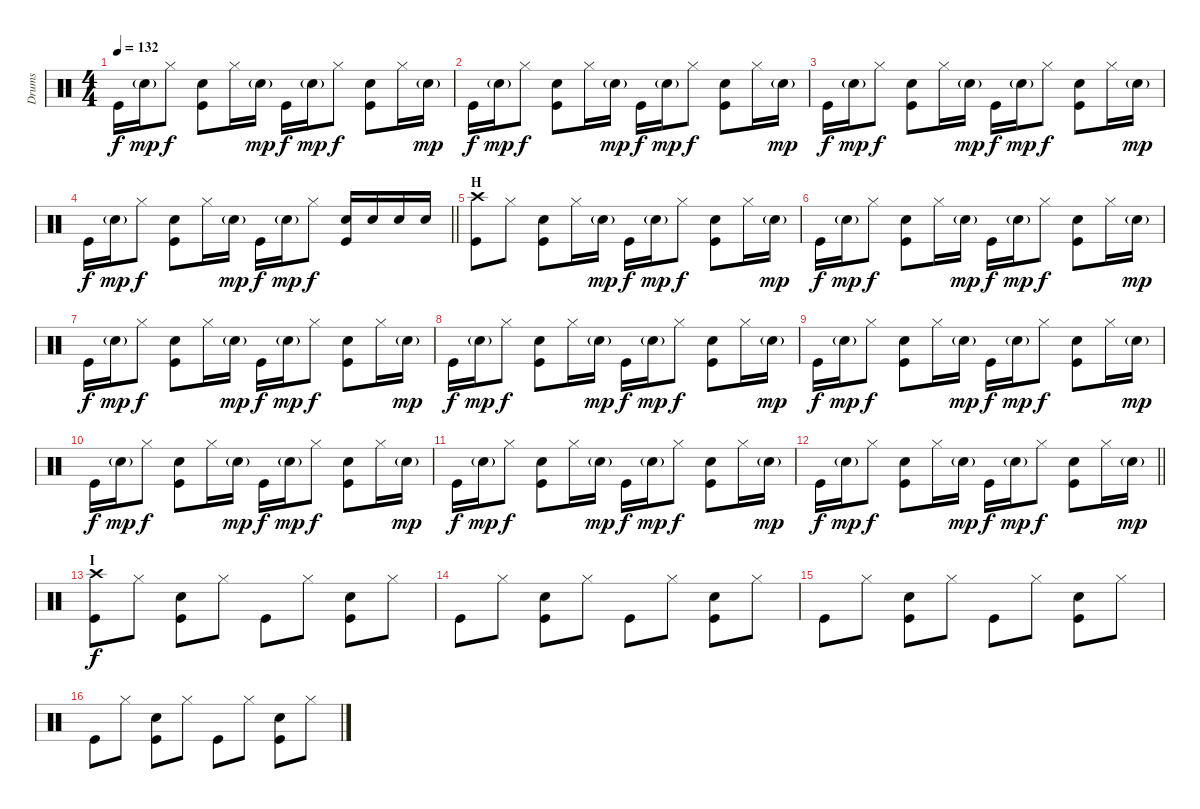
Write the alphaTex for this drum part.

\track ("Drums" "Drums") {instrument percussion}
\staff {score}
\articulation defaults
\ts (4 4)
\tempo 132
\clef neutral
\ks c "Kick (hit)".16{dy f} "Electric Snare (hit)"{g}.16{dy mp} "Hi-Hat (closed)".8{dy f}
("Electric Snare (hit)" "Kick (hit)").8 "Hi-Hat (closed)".16 "Electric Snare (hit)"{g}.16{dy mp} "Kick (hit)".16{dy f} "Electric Snare (hit)"{g}.16{dy mp} "Hi-Hat (closed)".8{dy f} ("Electric Snare (hit)" "Kick (hit)").8 "Hi-Hat (closed)".16 "Electric Snare (hit)"{g}.16{dy mp} |
"Kick (hit)".16{dy f} "Electric Snare (hit)"{g}.16{dy mp} "Hi-Hat (closed)".8{dy f} ("Electric Snare (hit)" "Kick (hit)").8 "Hi-Hat (closed)".16 "Electric Snare (hit)"{g}.16{dy mp} "Kick (hit)".16{dy f} "Electric Snare (hit)"{g}.16{dy mp} "Hi-Hat (closed)".8{dy f} ("Electric Snare (hit)" "Kick (hit)").8 "Hi-Hat (closed)".16 "Electric Snare (hit)"{g}.16{dy mp} |
"Kick (hit)".16{dy f} "Electric Snare (hit)"{g}.16{dy mp} "Hi-Hat (closed)".8{dy f} ("Electric Snare (hit)" "Kick (hit)").8 "Hi-Hat (closed)".16 "Electric Snare (hit)"{g}.16{dy mp} "Kick (hit)".16{dy f} "Electric Snare (hit)"{g}.16{dy mp} "Hi-Hat (closed)".8{dy f} ("Electric Snare (hit)" "Kick (hit)").8 "Hi-Hat (closed)".16 "Electric Snare (hit)"{g}.16{dy mp} |
\barLineRight lightlight "Kick (hit)".16{dy f} "Electric Snare (hit)"{g}.16{dy mp} "Hi-Hat (closed)".8{dy f}
("Electric Snare (hit)" "Kick (hit)").8 "Hi-Hat (closed)".16 "Electric Snare (hit)"{g}.16{dy mp} "Kick (hit)".16{dy f} "Electric Snare (hit)"{g}.16{dy mp} "Hi-Hat (closed)".8{dy f} ("Electric Snare (hit)" "Kick (hit)").16 "Electric Snare (hit)".16 "Electric Snare (hit)".16 "Electric Snare (hit)".16 |
\section ("" "H")
("Crash high (hit)" "Kick (hit)").8 "Hi-Hat (closed)".8 ("Electric Snare (hit)" "Kick (hit)").8 "Hi-Hat (closed)".16 "Electric Snare (hit)"{g}.16{dy mp} "Kick (hit)".16{dy f} "Electric Snare (hit)"{g}.16{dy mp} "Hi-Hat (closed)".8{dy f} ("Electric Snare (hit)" "Kick (hit)").8 "Hi-Hat (closed)".16 "Electric Snare (hit)"{g}.16{dy mp} |
"Kick (hit)".16{dy f} "Electric Snare (hit)"{g}.16{dy mp} "Hi-Hat (closed)".8{dy f} ("Electric Snare (hit)" "Kick (hit)").8 "Hi-Hat (closed)".16 "Electric Snare (hit)"{g}.16{dy mp} "Kick (hit)".16{dy f} "Electric Snare (hit)"{g}.16{dy mp} "Hi-Hat (closed)".8{dy f} ("Electric Snare (hit)" "Kick (hit)").8 "Hi-Hat (closed)".16 "Electric Snare (hit)"{g}.16{dy mp} |
"Kick (hit)".16{dy f} "Electric Snare (hit)"{g}.16{dy mp} "Hi-Hat (closed)".8{dy f} ("Electric Snare (hit)" "Kick (hit)").8 "Hi-Hat (closed)".16 "Electric Snare (hit)"{g}.16{dy mp} "Kick (hit)".16{dy f} "Electric Snare (hit)"{g}.16{dy mp} "Hi-Hat (closed)".8{dy f} ("Electric Snare (hit)" "Kick (hit)").8 "Hi-Hat (closed)".16 "Electric Snare (hit)"{g}.16{dy mp} |
"Kick (hit)".16{dy f} "Electric Snare (hit)"{g}.16{dy mp} "Hi-Hat (closed)".8{dy f} ("Electric Snare (hit)" "Kick (hit)").8 "Hi-Hat (closed)".16 "Electric Snare (hit)"{g}.16{dy mp} "Kick (hit)".16{dy f} "Electric Snare (hit)"{g}.16{dy mp} "Hi-Hat (closed)".8{dy f} ("Electric Snare (hit)" "Kick (hit)").8 "Hi-Hat (closed)".16 "Electric Snare (hit)"{g}.16{dy mp} |
"Kick (hit)".16{dy f} "Electric Snare (hit)"{g}.16{dy mp} "Hi-Hat (closed)".8{dy f} ("Electric Snare (hit)" "Kick (hit)").8 "Hi-Hat (closed)".16 "Electric Snare (hit)"{g}.16{dy mp} "Kick (hit)".16{dy f} "Electric Snare (hit)"{g}.16{dy mp} "Hi-Hat (closed)".8{dy f} ("Electric Snare (hit)" "Kick (hit)").8 "Hi-Hat (closed)".16 "Electric Snare (hit)"{g}.16{dy mp} |
"Kick (hit)".16{dy f} "Electric Snare (hit)"{g}.16{dy mp} "Hi-Hat (closed)".8{dy f} ("Electric Snare (hit)" "Kick (hit)").8 "Hi-Hat (closed)".16 "Electric Snare (hit)"{g}.16{dy mp} "Kick (hit)".16{dy f} "Electric Snare (hit)"{g}.16{dy mp} "Hi-Hat (closed)".8{dy f} ("Electric Snare (hit)" "Kick (hit)").8 "Hi-Hat (closed)".16 "Electric Snare (hit)"{g}.16{dy mp} |
"Kick (hit)".16{dy f} "Electric Snare (hit)"{g}.16{dy mp} "Hi-Hat (closed)".8{dy f} ("Electric Snare (hit)" "Kick (hit)").8 "Hi-Hat (closed)".16 "Electric Snare (hit)"{g}.16{dy mp} "Kick (hit)".16{dy f} "Electric Snare (hit)"{g}.16{dy mp} "Hi-Hat (closed)".8{dy f} ("Electric Snare (hit)" "Kick (hit)").8 "Hi-Hat (closed)".16 "Electric Snare (hit)"{g}.16{dy mp} |
\barLineRight lightlight "Kick (hit)".16{dy f} "Electric Snare (hit)"{g}.16{dy mp} "Hi-Hat (closed)".8{dy f}
("Electric Snare (hit)" "Kick (hit)").8 "Hi-Hat (closed)".16 "Electric Snare (hit)"{g}.16{dy mp} "Kick (hit)".16{dy f} "Electric Snare (hit)"{g}.16{dy mp} "Hi-Hat (closed)".8{dy f} ("Electric Snare (hit)" "Kick (hit)").8 "Hi-Hat (closed)".16 "Electric Snare (hit)"{g}.16{dy mp} |
\section ("" "I")
("Crash high (hit)" "Kick (hit)").8{dy f} "Hi-Hat (closed)".8 ("Electric Snare (hit)" "Kick (hit)").8 "Hi-Hat (closed)".8 "Kick (hit)".8 "Hi-Hat (closed)".8 ("Electric Snare (hit)" "Kick (hit)").8 "Hi-Hat (closed)".8 |
"Kick (hit)".8 "Hi-Hat (closed)".8 ("Electric Snare (hit)" "Kick (hit)").8 "Hi-Hat (closed)".8 "Kick (hit)".8 "Hi-Hat (closed)".8 ("Electric Snare (hit)" "Kick (hit)").8 "Hi-Hat (closed)".8 |
"Kick (hit)".8 "Hi-Hat (closed)".8 ("Electric Snare (hit)" "Kick (hit)").8 "Hi-Hat (closed)".8 "Kick (hit)".8 "Hi-Hat (closed)".8 ("Electric Snare (hit)" "Kick (hit)").8 "Hi-Hat (closed)".8 |
"Kick (hit)".8 "Hi-Hat (closed)".8 ("Electric Snare (hit)" "Kick (hit)").8 "Hi-Hat (closed)".8 "Kick (hit)".8 "Hi-Hat (closed)".8 ("Electric Snare (hit)" "Kick (hit)").8 "Hi-Hat (closed)".8
